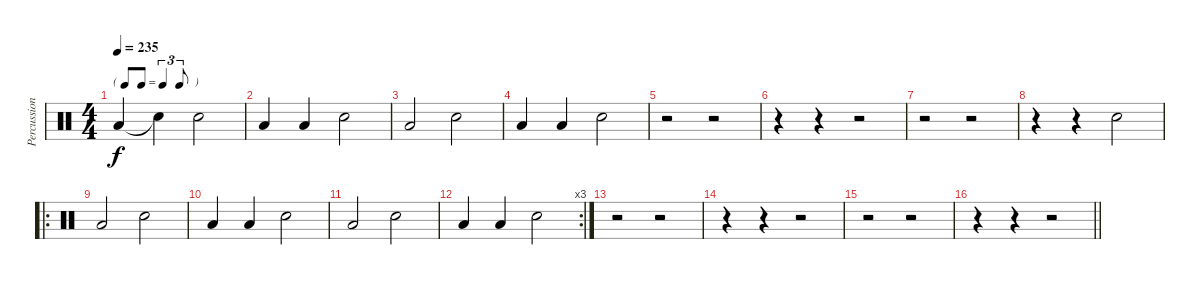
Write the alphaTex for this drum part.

\track ("Percussions" "Percussion") {instrument percussion}
\staff
\articulation defaults
\ts (4 4)
\tf triplet8th
\tempo 235
\clef neutral
\ks c "Low Tom (hit)".4{dy f} "Snare (hit)"{t}.4 "Snare (hit) 2".2
|
"Low Tom (hit)".4 "Low Tom (hit)".4 "Snare (hit) 2".2 |
"Low Tom (hit)".2 "Snare (hit) 2".2 |
"Low Tom (hit)".4 "Low Tom (hit)".4 "Snare (hit) 2".2 |
r.2 r.2 |
r.4 r.4 r.2 |
r.2 r.2 |
r.4 r.4 "Snare (hit) 2".2 |
\ro "Low Tom (hit)".2 "Snare (hit) 2".2
|
"Low Tom (hit)".4 "Low Tom (hit)".4 "Snare (hit) 2".2 |
"Low Tom (hit)".2 "Snare (hit) 2".2 |
\rc 3 "Low Tom (hit)".4 "Low Tom (hit)".4 "Snare (hit) 2".2
|
r.2 r.2 |
r.4 r.4 r.2 |
r.2 r.2 |
\barLineRight lightlight
r.4 r.4 r.2
